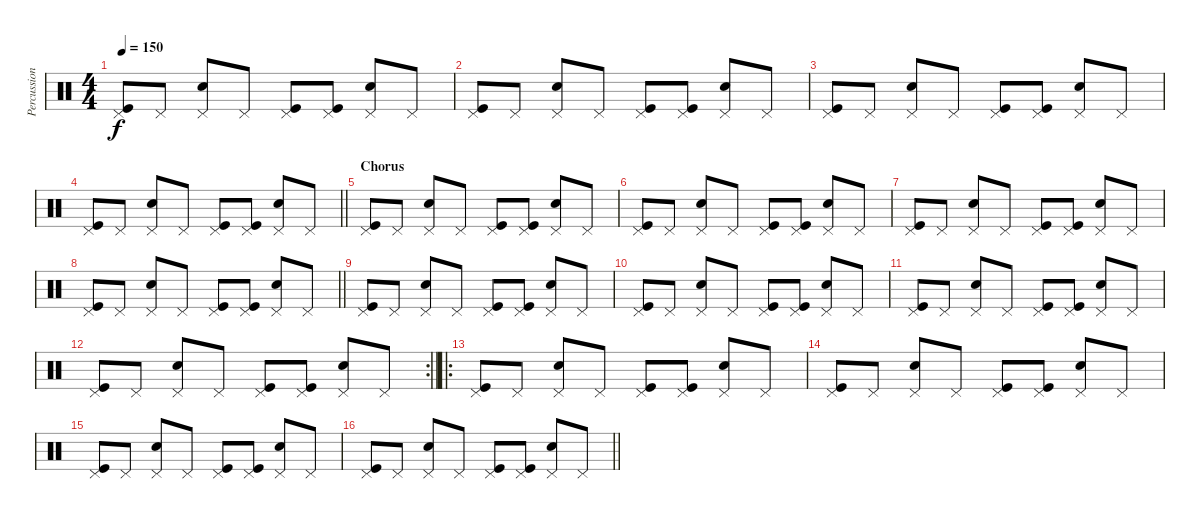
\track ("Percussion" "Percussion") {instrument percussion}
\staff {score}
\articulation defaults
\ts (4 4)
\tempo 150
\clef neutral
\ks c
("Kick (hit)" "Pedal Hi-Hat (hit)").8{dy f} "Pedal Hi-Hat (hit)".8 ("Snare (hit) 2" "Pedal Hi-Hat (hit)").8 "Pedal Hi-Hat (hit)".8 ("Kick (hit)" "Pedal Hi-Hat (hit)").8 ("Kick (hit)" "Pedal Hi-Hat (hit)").8 ("Snare (hit) 2" "Pedal Hi-Hat (hit)").8 "Pedal Hi-Hat (hit)".8 |
("Kick (hit)" "Pedal Hi-Hat (hit)").8 "Pedal Hi-Hat (hit)".8 ("Snare (hit) 2" "Pedal Hi-Hat (hit)").8 "Pedal Hi-Hat (hit)".8 ("Kick (hit)" "Pedal Hi-Hat (hit)").8 ("Kick (hit)" "Pedal Hi-Hat (hit)").8 ("Snare (hit) 2" "Pedal Hi-Hat (hit)").8 "Pedal Hi-Hat (hit)".8 |
("Kick (hit)" "Pedal Hi-Hat (hit)").8 "Pedal Hi-Hat (hit)".8 ("Snare (hit) 2" "Pedal Hi-Hat (hit)").8 "Pedal Hi-Hat (hit)".8 ("Kick (hit)" "Pedal Hi-Hat (hit)").8 ("Kick (hit)" "Pedal Hi-Hat (hit)").8 ("Snare (hit) 2" "Pedal Hi-Hat (hit)").8 "Pedal Hi-Hat (hit)".8 |
\barLineRight lightlight
("Kick (hit)" "Pedal Hi-Hat (hit)").8 "Pedal Hi-Hat (hit)".8 ("Snare (hit) 2" "Pedal Hi-Hat (hit)").8 "Pedal Hi-Hat (hit)".8 ("Kick (hit)" "Pedal Hi-Hat (hit)").8 ("Kick (hit)" "Pedal Hi-Hat (hit)").8 ("Snare (hit) 2" "Pedal Hi-Hat (hit)").8 "Pedal Hi-Hat (hit)".8 |
\section ("" "Chorus")
("Kick (hit)" "Pedal Hi-Hat (hit)").8 "Pedal Hi-Hat (hit)".8 ("Snare (hit) 2" "Pedal Hi-Hat (hit)").8 "Pedal Hi-Hat (hit)".8 ("Kick (hit)" "Pedal Hi-Hat (hit)").8 ("Kick (hit)" "Pedal Hi-Hat (hit)").8 ("Snare (hit) 2" "Pedal Hi-Hat (hit)").8 "Pedal Hi-Hat (hit)".8 |
("Kick (hit)" "Pedal Hi-Hat (hit)").8 "Pedal Hi-Hat (hit)".8 ("Snare (hit) 2" "Pedal Hi-Hat (hit)").8 "Pedal Hi-Hat (hit)".8 ("Kick (hit)" "Pedal Hi-Hat (hit)").8 ("Kick (hit)" "Pedal Hi-Hat (hit)").8 ("Snare (hit) 2" "Pedal Hi-Hat (hit)").8 "Pedal Hi-Hat (hit)".8 |
("Kick (hit)" "Pedal Hi-Hat (hit)").8 "Pedal Hi-Hat (hit)".8 ("Snare (hit) 2" "Pedal Hi-Hat (hit)").8 "Pedal Hi-Hat (hit)".8 ("Kick (hit)" "Pedal Hi-Hat (hit)").8 ("Kick (hit)" "Pedal Hi-Hat (hit)").8 ("Snare (hit) 2" "Pedal Hi-Hat (hit)").8 "Pedal Hi-Hat (hit)".8 |
\barLineRight lightlight
("Kick (hit)" "Pedal Hi-Hat (hit)").8 "Pedal Hi-Hat (hit)".8 ("Snare (hit) 2" "Pedal Hi-Hat (hit)").8 "Pedal Hi-Hat (hit)".8 ("Kick (hit)" "Pedal Hi-Hat (hit)").8 ("Kick (hit)" "Pedal Hi-Hat (hit)").8 ("Snare (hit) 2" "Pedal Hi-Hat (hit)").8 "Pedal Hi-Hat (hit)".8 |
("Kick (hit)" "Pedal Hi-Hat (hit)").8 "Pedal Hi-Hat (hit)".8 ("Snare (hit) 2" "Pedal Hi-Hat (hit)").8 "Pedal Hi-Hat (hit)".8 ("Kick (hit)" "Pedal Hi-Hat (hit)").8 ("Kick (hit)" "Pedal Hi-Hat (hit)").8 ("Snare (hit) 2" "Pedal Hi-Hat (hit)").8 "Pedal Hi-Hat (hit)".8 |
("Kick (hit)" "Pedal Hi-Hat (hit)").8 "Pedal Hi-Hat (hit)".8 ("Snare (hit) 2" "Pedal Hi-Hat (hit)").8 "Pedal Hi-Hat (hit)".8 ("Kick (hit)" "Pedal Hi-Hat (hit)").8 ("Kick (hit)" "Pedal Hi-Hat (hit)").8 ("Snare (hit) 2" "Pedal Hi-Hat (hit)").8 "Pedal Hi-Hat (hit)".8 |
("Kick (hit)" "Pedal Hi-Hat (hit)").8 "Pedal Hi-Hat (hit)".8 ("Snare (hit) 2" "Pedal Hi-Hat (hit)").8 "Pedal Hi-Hat (hit)".8 ("Kick (hit)" "Pedal Hi-Hat (hit)").8 ("Kick (hit)" "Pedal Hi-Hat (hit)").8 ("Snare (hit) 2" "Pedal Hi-Hat (hit)").8 "Pedal Hi-Hat (hit)".8 |
\rc 2
\barLineRight lightlight
("Kick (hit)" "Pedal Hi-Hat (hit)").8 "Pedal Hi-Hat (hit)".8 ("Snare (hit) 2" "Pedal Hi-Hat (hit)").8 "Pedal Hi-Hat (hit)".8 ("Kick (hit)" "Pedal Hi-Hat (hit)").8 ("Kick (hit)" "Pedal Hi-Hat (hit)").8 ("Snare (hit) 2" "Pedal Hi-Hat (hit)").8 "Pedal Hi-Hat (hit)".8 |
\ro
("Kick (hit)" "Pedal Hi-Hat (hit)").8 "Pedal Hi-Hat (hit)".8 ("Snare (hit) 2" "Pedal Hi-Hat (hit)").8 "Pedal Hi-Hat (hit)".8 ("Kick (hit)" "Pedal Hi-Hat (hit)").8 ("Kick (hit)" "Pedal Hi-Hat (hit)").8 ("Snare (hit) 2" "Pedal Hi-Hat (hit)").8 "Pedal Hi-Hat (hit)".8 |
("Kick (hit)" "Pedal Hi-Hat (hit)").8 "Pedal Hi-Hat (hit)".8 ("Snare (hit) 2" "Pedal Hi-Hat (hit)").8 "Pedal Hi-Hat (hit)".8 ("Kick (hit)" "Pedal Hi-Hat (hit)").8 ("Kick (hit)" "Pedal Hi-Hat (hit)").8 ("Snare (hit) 2" "Pedal Hi-Hat (hit)").8 "Pedal Hi-Hat (hit)".8 |
("Kick (hit)" "Pedal Hi-Hat (hit)").8 "Pedal Hi-Hat (hit)".8 ("Snare (hit) 2" "Pedal Hi-Hat (hit)").8 "Pedal Hi-Hat (hit)".8 ("Kick (hit)" "Pedal Hi-Hat (hit)").8 ("Kick (hit)" "Pedal Hi-Hat (hit)").8 ("Snare (hit) 2" "Pedal Hi-Hat (hit)").8 "Pedal Hi-Hat (hit)".8 |
\barLineRight lightlight
("Kick (hit)" "Pedal Hi-Hat (hit)").8 "Pedal Hi-Hat (hit)".8 ("Snare (hit) 2" "Pedal Hi-Hat (hit)").8 "Pedal Hi-Hat (hit)".8 ("Kick (hit)" "Pedal Hi-Hat (hit)").8 ("Kick (hit)" "Pedal Hi-Hat (hit)").8 ("Snare (hit) 2" "Pedal Hi-Hat (hit)").8 "Pedal Hi-Hat (hit)".8
